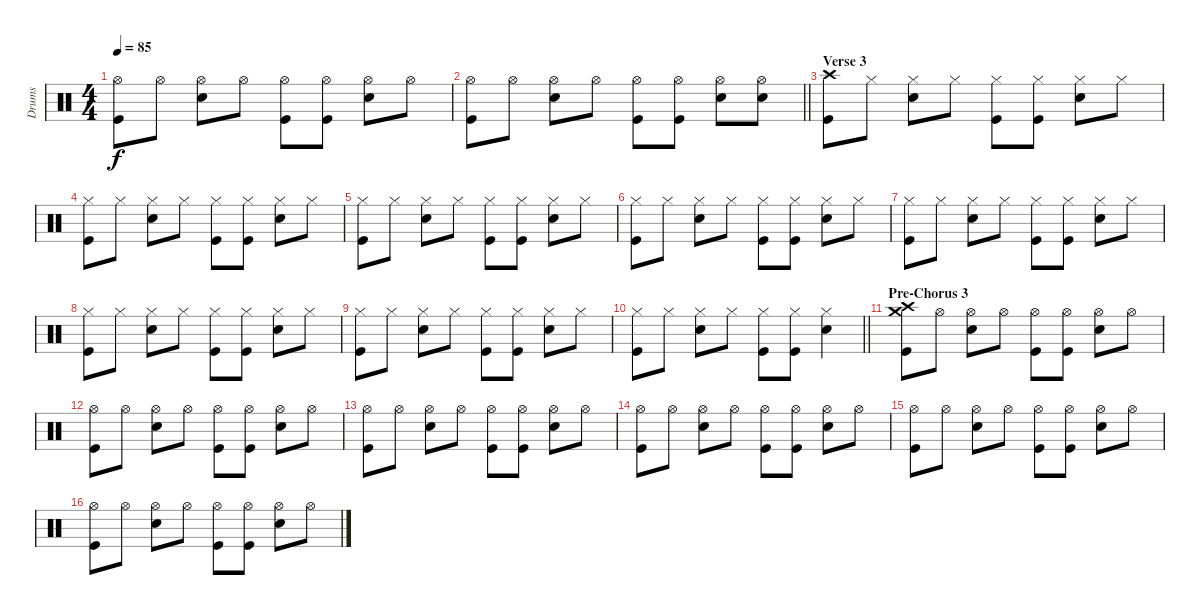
\track ("Drums" "Drums") {instrument percussion}
\staff {score}
\articulation defaults
\ts (4 4)
\tempo 85
\clef neutral
\ks c
("Hi-Hat (open)" "Kick (hit)").8{dy f} "Hi-Hat (open)".8 ("Hi-Hat (open)" "Snare (hit) 2").8 "Hi-Hat (open)".8 ("Hi-Hat (open)" "Kick (hit)").8 ("Hi-Hat (open)" "Kick (hit)").8 ("Hi-Hat (open)" "Snare (hit) 2").8 "Hi-Hat (open)".8 |
\barLineRight lightlight
("Hi-Hat (open)" "Kick (hit)").8 "Hi-Hat (open)".8 ("Hi-Hat (open)" "Snare (hit) 2").8 "Hi-Hat (open)".8 ("Hi-Hat (open)" "Kick (hit)").8 ("Hi-Hat (open)" "Kick (hit)").8 ("Hi-Hat (open)" "Snare (hit) 2").8 ("Hi-Hat (open)" "Snare (hit) 2").8 |
\section ("" "Verse 3")
("Crash high (hit)" "Kick (hit)").8 "Hi-Hat (closed)".8 ("Hi-Hat (closed)" "Snare (hit) 2").8 "Hi-Hat (closed)".8 ("Hi-Hat (closed)" "Kick (hit)").8 ("Hi-Hat (closed)" "Kick (hit)").8 ("Hi-Hat (closed)" "Snare (hit) 2").8 "Hi-Hat (closed)".8 |
("Hi-Hat (closed)" "Kick (hit)").8 "Hi-Hat (closed)".8 ("Hi-Hat (closed)" "Snare (hit) 2").8 "Hi-Hat (closed)".8 ("Hi-Hat (closed)" "Kick (hit)").8 ("Hi-Hat (closed)" "Kick (hit)").8 ("Hi-Hat (closed)" "Snare (hit) 2").8 "Hi-Hat (closed)".8 |
("Hi-Hat (closed)" "Kick (hit)").8 "Hi-Hat (closed)".8 ("Hi-Hat (closed)" "Snare (hit) 2").8 "Hi-Hat (closed)".8 ("Hi-Hat (closed)" "Kick (hit)").8 ("Hi-Hat (closed)" "Kick (hit)").8 ("Hi-Hat (closed)" "Snare (hit) 2").8 "Hi-Hat (closed)".8 |
("Hi-Hat (closed)" "Kick (hit)").8 "Hi-Hat (closed)".8 ("Hi-Hat (closed)" "Snare (hit) 2").8 "Hi-Hat (closed)".8 ("Hi-Hat (closed)" "Kick (hit)").8 ("Hi-Hat (closed)" "Kick (hit)").8 ("Hi-Hat (closed)" "Snare (hit) 2").8 "Hi-Hat (closed)".8 |
("Hi-Hat (closed)" "Kick (hit)").8 "Hi-Hat (closed)".8 ("Hi-Hat (closed)" "Snare (hit) 2").8 "Hi-Hat (closed)".8 ("Hi-Hat (closed)" "Kick (hit)").8 ("Hi-Hat (closed)" "Kick (hit)").8 ("Hi-Hat (closed)" "Snare (hit) 2").8 "Hi-Hat (closed)".8 |
("Hi-Hat (closed)" "Kick (hit)").8 "Hi-Hat (closed)".8 ("Hi-Hat (closed)" "Snare (hit) 2").8 "Hi-Hat (closed)".8 ("Hi-Hat (closed)" "Kick (hit)").8 ("Hi-Hat (closed)" "Kick (hit)").8 ("Hi-Hat (closed)" "Snare (hit) 2").8 "Hi-Hat (closed)".8 |
("Hi-Hat (closed)" "Kick (hit)").8 "Hi-Hat (closed)".8 ("Hi-Hat (closed)" "Snare (hit) 2").8 "Hi-Hat (closed)".8 ("Hi-Hat (closed)" "Kick (hit)").8 ("Hi-Hat (closed)" "Kick (hit)").8 ("Hi-Hat (closed)" "Snare (hit) 2").8 "Hi-Hat (closed)".8 |
\barLineRight lightlight
("Hi-Hat (closed)" "Kick (hit)").8 "Hi-Hat (closed)".8 ("Hi-Hat (closed)" "Snare (hit) 2").8 "Hi-Hat (closed)".8 ("Hi-Hat (closed)" "Kick (hit)").8 ("Hi-Hat (closed)" "Kick (hit)").8 ("Hi-Hat (closed)" "Snare (hit) 2").4 |
\section ("" "Pre-Chorus 3")
("Crash high (hit)" "Crash medium (hit)" "Kick (hit)").8 "Hi-Hat (open)".8 ("Hi-Hat (open)" "Snare (hit) 2").8 "Hi-Hat (open)".8 ("Hi-Hat (open)" "Kick (hit)").8 ("Hi-Hat (open)" "Kick (hit)").8 ("Hi-Hat (open)" "Snare (hit) 2").8 "Hi-Hat (open)".8 |
("Hi-Hat (open)" "Kick (hit)").8 "Hi-Hat (open)".8 ("Hi-Hat (open)" "Snare (hit) 2").8 "Hi-Hat (open)".8 ("Hi-Hat (open)" "Kick (hit)").8 ("Hi-Hat (open)" "Kick (hit)").8 ("Hi-Hat (open)" "Snare (hit) 2").8 "Hi-Hat (open)".8 |
("Hi-Hat (open)" "Kick (hit)").8 "Hi-Hat (open)".8 ("Hi-Hat (open)" "Snare (hit) 2").8 "Hi-Hat (open)".8 ("Hi-Hat (open)" "Kick (hit)").8 ("Hi-Hat (open)" "Kick (hit)").8 ("Hi-Hat (open)" "Snare (hit) 2").8 "Hi-Hat (open)".8 |
("Hi-Hat (open)" "Kick (hit)").8 "Hi-Hat (open)".8 ("Hi-Hat (open)" "Snare (hit) 2").8 "Hi-Hat (open)".8 ("Hi-Hat (open)" "Kick (hit)").8 ("Hi-Hat (open)" "Kick (hit)").8 ("Hi-Hat (open)" "Snare (hit) 2").8 "Hi-Hat (open)".8 |
("Hi-Hat (open)" "Kick (hit)").8 "Hi-Hat (open)".8 ("Hi-Hat (open)" "Snare (hit) 2").8 "Hi-Hat (open)".8 ("Hi-Hat (open)" "Kick (hit)").8 ("Hi-Hat (open)" "Kick (hit)").8 ("Hi-Hat (open)" "Snare (hit) 2").8 "Hi-Hat (open)".8 |
("Hi-Hat (open)" "Kick (hit)").8 "Hi-Hat (open)".8 ("Hi-Hat (open)" "Snare (hit) 2").8 "Hi-Hat (open)".8 ("Hi-Hat (open)" "Kick (hit)").8 ("Hi-Hat (open)" "Kick (hit)").8 ("Hi-Hat (open)" "Snare (hit) 2").8 "Hi-Hat (open)".8
